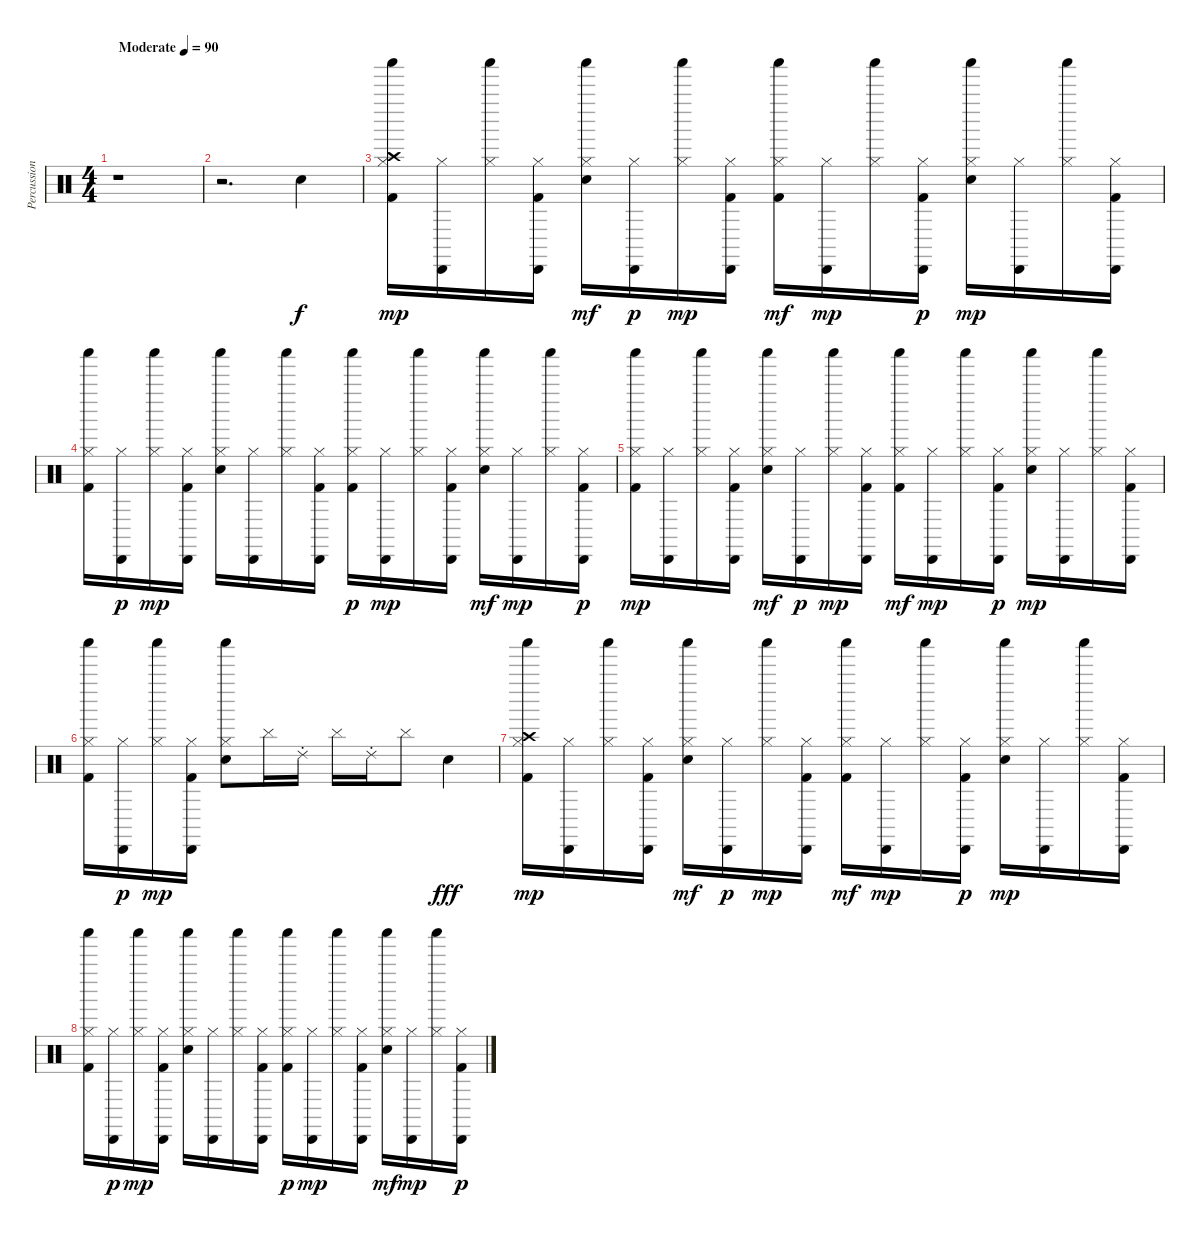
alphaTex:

\track ("Percussions" "Percussion") {instrument percussion}
\staff {score}
\articulation defaults
\ts (4 4)
\tempo (90 "Moderate")
\clef neutral
\ks c
r.1{dy f} |
r.2{d} "Electric Snare (hit)".4 |
("Kick (hit) 2" "Hi-Hat (closed)" "Crash high (hit)" "Shaker (hit)").16{dy mp} ("Hi-Hat (closed)" "Cabasa (hit)").16 ("Hi-Hat (closed)" "Shaker (hit)").16 ("Kick (hit) 2" "Hi-Hat (closed)" "Cabasa (hit)").16 ("Electric Snare (hit)" "Hi-Hat (closed)" "Shaker (hit)").16{dy mf} ("Hi-Hat (closed)" "Cabasa (hit)").16{dy p} ("Hi-Hat (closed)" "Shaker (hit)").16{dy mp} ("Kick (hit) 2" "Hi-Hat (closed)" "Cabasa (hit)").16 ("Kick (hit) 2" "Hi-Hat (closed)" "Shaker (hit)").16{dy mf} ("Hi-Hat (closed)" "Cabasa (hit)").16{dy mp} ("Hi-Hat (closed)" "Shaker (hit)").16 ("Kick (hit) 2" "Hi-Hat (closed)" "Cabasa (hit)").16{dy p} ("Electric Snare (hit)" "Hi-Hat (closed)" "Shaker (hit)").16{dy mp} ("Hi-Hat (closed)" "Cabasa (hit)").16 ("Hi-Hat (closed)" "Shaker (hit)").16 ("Kick (hit) 2" "Hi-Hat (closed)" "Cabasa (hit)").16 |
("Kick (hit) 2" "Hi-Hat (closed)" "Shaker (hit)").16 ("Hi-Hat (closed)" "Cabasa (hit)").16{dy p} ("Hi-Hat (closed)" "Shaker (hit)").16{dy mp} ("Kick (hit) 2" "Hi-Hat (closed)" "Cabasa (hit)").16 ("Electric Snare (hit)" "Hi-Hat (closed)" "Shaker (hit)").16 ("Hi-Hat (closed)" "Cabasa (hit)").16 ("Hi-Hat (closed)" "Shaker (hit)").16 ("Kick (hit) 2" "Hi-Hat (closed)" "Cabasa (hit)").16 ("Kick (hit) 2" "Hi-Hat (closed)" "Shaker (hit)").16{dy p} ("Hi-Hat (closed)" "Cabasa (hit)").16{dy mp} ("Hi-Hat (closed)" "Shaker (hit)").16 ("Kick (hit) 2" "Hi-Hat (closed)" "Cabasa (hit)").16 ("Electric Snare (hit)" "Hi-Hat (closed)" "Shaker (hit)").16{dy mf} ("Hi-Hat (closed)" "Cabasa (hit)").16{dy mp} ("Hi-Hat (closed)" "Shaker (hit)").16 ("Kick (hit) 2" "Hi-Hat (closed)" "Cabasa (hit)").16{dy p} |
("Kick (hit) 2" "Hi-Hat (closed)" "Shaker (hit)").16{dy mp} ("Hi-Hat (closed)" "Cabasa (hit)").16 ("Hi-Hat (closed)" "Shaker (hit)").16 ("Kick (hit) 2" "Hi-Hat (closed)" "Cabasa (hit)").16 ("Electric Snare (hit)" "Hi-Hat (closed)" "Shaker (hit)").16{dy mf} ("Hi-Hat (closed)" "Cabasa (hit)").16{dy p} ("Hi-Hat (closed)" "Shaker (hit)").16{dy mp} ("Kick (hit) 2" "Hi-Hat (closed)" "Cabasa (hit)").16 ("Kick (hit) 2" "Hi-Hat (closed)" "Shaker (hit)").16{dy mf} ("Hi-Hat (closed)" "Cabasa (hit)").16{dy mp} ("Hi-Hat (closed)" "Shaker (hit)").16 ("Kick (hit) 2" "Hi-Hat (closed)" "Cabasa (hit)").16{dy p} ("Electric Snare (hit)" "Hi-Hat (closed)" "Shaker (hit)").16{dy mp} ("Hi-Hat (closed)" "Cabasa (hit)").16 ("Hi-Hat (closed)" "Shaker (hit)").16 ("Kick (hit) 2" "Hi-Hat (closed)" "Cabasa (hit)").16 |
("Kick (hit) 2" "Hi-Hat (closed)" "Shaker (hit)").16 ("Hi-Hat (closed)" "Cabasa (hit)").16{dy p} ("Hi-Hat (closed)" "Shaker (hit)").16{dy mp} ("Kick (hit) 2" "Hi-Hat (closed)" "Cabasa (hit)").16 ("Electric Snare (hit)" "Hi-Hat (closed)" "Shaker (hit)").8 "Cymbal (hit)".16 "Ride (choke) 2".16 "Cymbal (hit)".16 "Ride (choke) 2".16 "Cymbal (hit)".8 "Electric Snare (hit)".4{dy fff} |
("Kick (hit) 2" "Hi-Hat (closed)" "Crash high (hit)" "Shaker (hit)").16{dy mp} ("Hi-Hat (closed)" "Cabasa (hit)").16 ("Hi-Hat (closed)" "Shaker (hit)").16 ("Kick (hit) 2" "Hi-Hat (closed)" "Cabasa (hit)").16 ("Electric Snare (hit)" "Hi-Hat (closed)" "Shaker (hit)").16{dy mf} ("Hi-Hat (closed)" "Cabasa (hit)").16{dy p} ("Hi-Hat (closed)" "Shaker (hit)").16{dy mp} ("Kick (hit) 2" "Hi-Hat (closed)" "Cabasa (hit)").16 ("Kick (hit) 2" "Hi-Hat (closed)" "Shaker (hit)").16{dy mf} ("Hi-Hat (closed)" "Cabasa (hit)").16{dy mp} ("Hi-Hat (closed)" "Shaker (hit)").16 ("Kick (hit) 2" "Hi-Hat (closed)" "Cabasa (hit)").16{dy p} ("Electric Snare (hit)" "Hi-Hat (closed)" "Shaker (hit)").16{dy mp} ("Hi-Hat (closed)" "Cabasa (hit)").16 ("Hi-Hat (closed)" "Shaker (hit)").16 ("Kick (hit) 2" "Hi-Hat (closed)" "Cabasa (hit)").16 |
("Kick (hit) 2" "Hi-Hat (closed)" "Shaker (hit)").16 ("Hi-Hat (closed)" "Cabasa (hit)").16{dy p} ("Hi-Hat (closed)" "Shaker (hit)").16{dy mp} ("Kick (hit) 2" "Hi-Hat (closed)" "Cabasa (hit)").16 ("Electric Snare (hit)" "Hi-Hat (closed)" "Shaker (hit)").16 ("Hi-Hat (closed)" "Cabasa (hit)").16 ("Hi-Hat (closed)" "Shaker (hit)").16 ("Kick (hit) 2" "Hi-Hat (closed)" "Cabasa (hit)").16 ("Kick (hit) 2" "Hi-Hat (closed)" "Shaker (hit)").16{dy p} ("Hi-Hat (closed)" "Cabasa (hit)").16{dy mp} ("Hi-Hat (closed)" "Shaker (hit)").16 ("Kick (hit) 2" "Hi-Hat (closed)" "Cabasa (hit)").16 ("Electric Snare (hit)" "Hi-Hat (closed)" "Shaker (hit)").16{dy mf} ("Hi-Hat (closed)" "Cabasa (hit)").16{dy mp} ("Hi-Hat (closed)" "Shaker (hit)").16 ("Kick (hit) 2" "Hi-Hat (closed)" "Cabasa (hit)").16{dy p}
